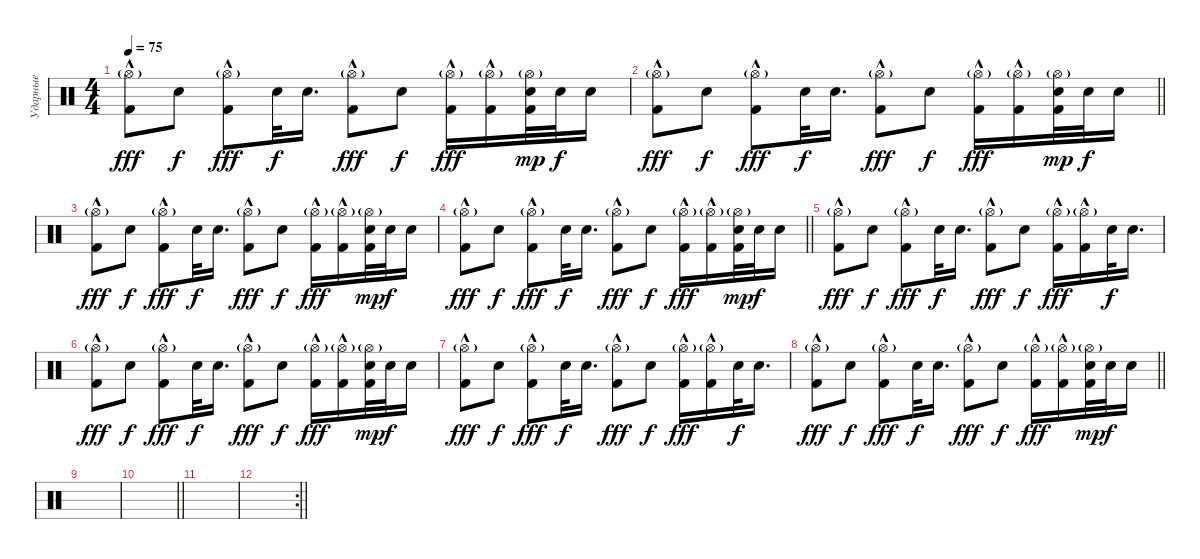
\track ("Ударные" "Ударные") {instrument percussion}
\staff {score}
\articulation defaults
\ts (4 4)
\tempo 75
\clef neutral
\ks c
("Hi-Hat (open)"{g} "Kick (hit) 2"{hac}).8{dy fff} "Electric Snare (hit)".8{dy f} ("Hi-Hat (open)"{g} "Kick (hit) 2"{hac}).8{dy fff} "Electric Snare (hit)".32{dy f} "Electric Snare (hit)".16{d} ("Hi-Hat (open)"{g} "Kick (hit) 2"{hac}).8{dy fff} "Electric Snare (hit)".8{dy f} ("Hi-Hat (open)"{g} "Kick (hit) 2"{hac}).16{dy fff} ("Hi-Hat (open)"{g} "Kick (hit) 2"{hac}).16 ("Hi-Hat (open)"{g} "Electric Snare (hit)" "Kick (hit) 2").32{dy mp} "Electric Snare (hit)".32{dy f} "Electric Snare (hit)".16 |
\barLineRight lightlight
("Hi-Hat (open)"{g} "Kick (hit) 2"{hac}).8{dy fff} "Electric Snare (hit)".8{dy f} ("Hi-Hat (open)"{g} "Kick (hit) 2"{hac}).8{dy fff} "Electric Snare (hit)".32{dy f} "Electric Snare (hit)".16{d} ("Hi-Hat (open)"{g} "Kick (hit) 2"{hac}).8{dy fff} "Electric Snare (hit)".8{dy f} ("Hi-Hat (open)"{g} "Kick (hit) 2"{hac}).16{dy fff} ("Hi-Hat (open)"{g} "Kick (hit) 2"{hac}).16 ("Hi-Hat (open)"{g} "Electric Snare (hit)" "Kick (hit) 2").32{dy mp} "Electric Snare (hit)".32{dy f} "Electric Snare (hit)".16 |
("Hi-Hat (open)"{g} "Kick (hit) 2"{hac}).8{dy fff} "Electric Snare (hit)".8{dy f} ("Hi-Hat (open)"{g} "Kick (hit) 2"{hac}).8{dy fff} "Electric Snare (hit)".32{dy f} "Electric Snare (hit)".16{d} ("Hi-Hat (open)"{g} "Kick (hit) 2"{hac}).8{dy fff} "Electric Snare (hit)".8{dy f} ("Hi-Hat (open)"{g} "Kick (hit) 2"{hac}).16{dy fff} ("Hi-Hat (open)"{g} "Kick (hit) 2"{hac}).16 ("Hi-Hat (open)"{g} "Electric Snare (hit)" "Kick (hit) 2").32{dy mp} "Electric Snare (hit)".32{dy f} "Electric Snare (hit)".16 |
\barLineRight lightlight
("Hi-Hat (open)"{g} "Kick (hit) 2"{hac}).8{dy fff} "Electric Snare (hit)".8{dy f} ("Hi-Hat (open)"{g} "Kick (hit) 2"{hac}).8{dy fff} "Electric Snare (hit)".32{dy f} "Electric Snare (hit)".16{d} ("Hi-Hat (open)"{g} "Kick (hit) 2"{hac}).8{dy fff} "Electric Snare (hit)".8{dy f} ("Hi-Hat (open)"{g} "Kick (hit) 2"{hac}).16{dy fff} ("Hi-Hat (open)"{g} "Kick (hit) 2"{hac}).16 ("Hi-Hat (open)"{g} "Electric Snare (hit)" "Kick (hit) 2").32{dy mp} "Electric Snare (hit)".32{dy f} "Electric Snare (hit)".16 |
\section ("" " ")
("Hi-Hat (open)"{g} "Kick (hit) 2"{hac}).8{dy fff} "Electric Snare (hit)".8{dy f} ("Hi-Hat (open)"{g} "Kick (hit) 2"{hac}).8{dy fff} "Electric Snare (hit)".32{dy f} "Electric Snare (hit)".16{d} ("Hi-Hat (open)"{g} "Kick (hit) 2"{hac}).8{dy fff} "Electric Snare (hit)".8{dy f} ("Hi-Hat (open)"{g} "Kick (hit) 2"{hac}).16{dy fff} ("Hi-Hat (open)"{g} "Kick (hit) 2"{hac}).16 "Electric Snare (hit)".32{dy f} "Electric Snare (hit)".16{d} |
("Hi-Hat (open)"{g} "Kick (hit) 2"{hac}).8{dy fff} "Electric Snare (hit)".8{dy f} ("Hi-Hat (open)"{g} "Kick (hit) 2"{hac}).8{dy fff} "Electric Snare (hit)".32{dy f} "Electric Snare (hit)".16{d} ("Hi-Hat (open)"{g} "Kick (hit) 2"{hac}).8{dy fff} "Electric Snare (hit)".8{dy f} ("Hi-Hat (open)"{g} "Kick (hit) 2"{hac}).16{dy fff} ("Hi-Hat (open)"{g} "Kick (hit) 2"{hac}).16 ("Hi-Hat (open)"{g} "Electric Snare (hit)" "Kick (hit) 2").32{dy mp} "Electric Snare (hit)".32{dy f} "Electric Snare (hit)".16 |
("Hi-Hat (open)"{g} "Kick (hit) 2"{hac}).8{dy fff} "Electric Snare (hit)".8{dy f} ("Hi-Hat (open)"{g} "Kick (hit) 2"{hac}).8{dy fff} "Electric Snare (hit)".32{dy f} "Electric Snare (hit)".16{d} ("Hi-Hat (open)"{g} "Kick (hit) 2"{hac}).8{dy fff} "Electric Snare (hit)".8{dy f} ("Hi-Hat (open)"{g} "Kick (hit) 2"{hac}).16{dy fff} ("Hi-Hat (open)"{g} "Kick (hit) 2"{hac}).16 "Electric Snare (hit)".32{dy f} "Electric Snare (hit)".16{d} |
\barLineRight lightlight
("Hi-Hat (open)"{g} "Kick (hit) 2"{hac}).8{dy fff} "Electric Snare (hit)".8{dy f} ("Hi-Hat (open)"{g} "Kick (hit) 2"{hac}).8{dy fff} "Electric Snare (hit)".32{dy f} "Electric Snare (hit)".16{d} ("Hi-Hat (open)"{g} "Kick (hit) 2"{hac}).8{dy fff} "Electric Snare (hit)".8{dy f} ("Hi-Hat (open)"{g} "Kick (hit) 2"{hac}).16{dy fff} ("Hi-Hat (open)"{g} "Kick (hit) 2"{hac}).16 ("Hi-Hat (open)"{g} "Electric Snare (hit)" "Kick (hit) 2").32{dy mp} "Electric Snare (hit)".32{dy f} "Electric Snare (hit)".16 |
\section ("" " ")
|
\barLineRight lightlight
|
|
\rc 2
\barLineRight lightlight
